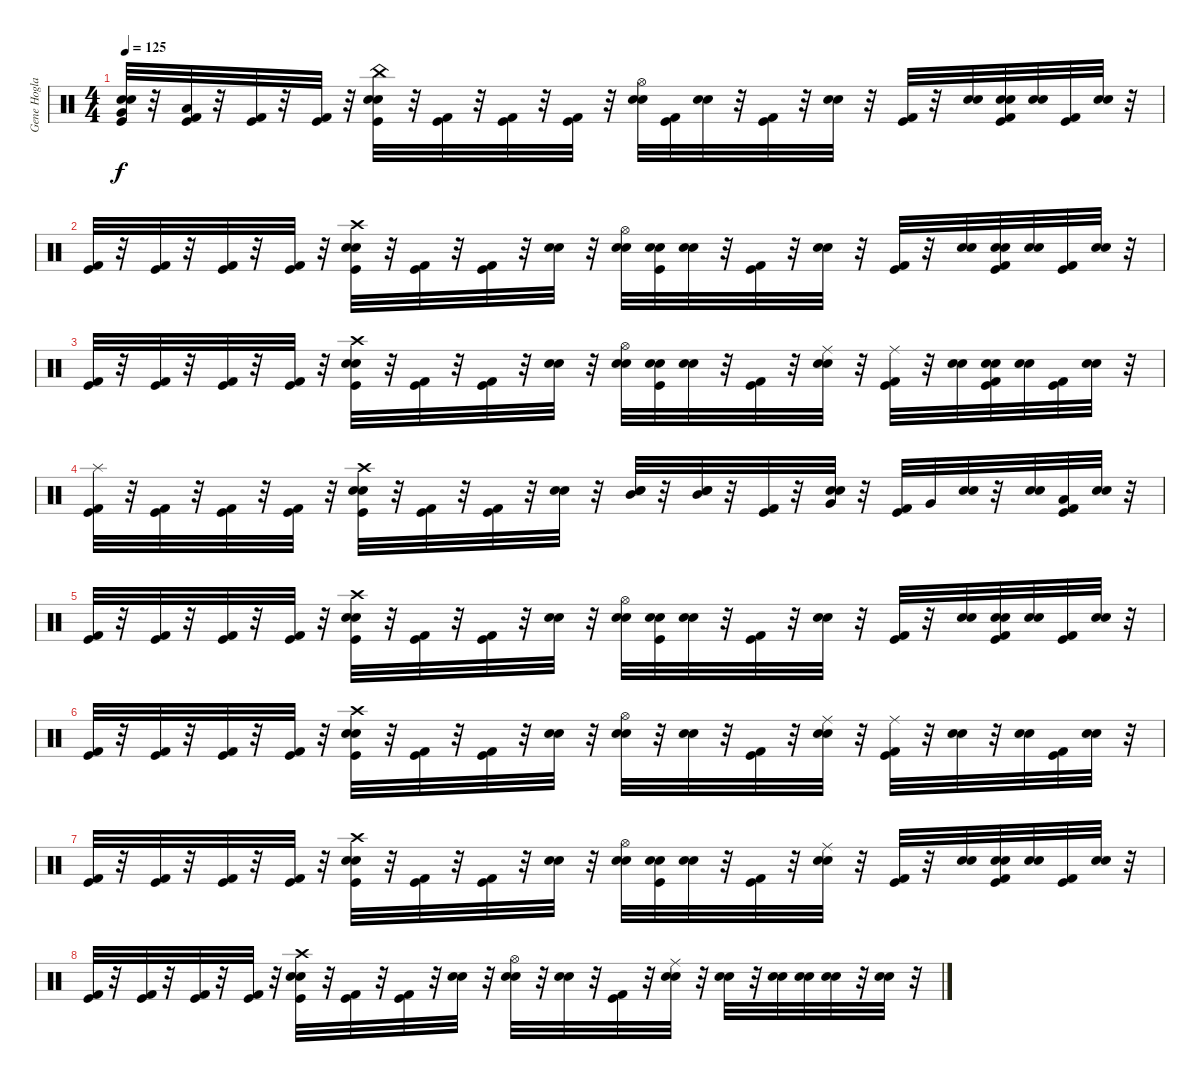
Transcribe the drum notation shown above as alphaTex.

\track ("Gene Hoglan" "Gene Hogla") {instrument percussion}
\staff {score}
\articulation defaults
\ts (4 4)
\tempo 125
\clef neutral
\ks c
("Very Low Tom (hit)" "Electric Snare (hit)" "Snare (hit) 2" "Kick (hit)").32{dy f} r.32 ("Low Floor Tom (hit)" "Kick (hit) 2" "Kick (hit)").32 r.32 ("Kick (hit) 2" "Kick (hit)").32 r.32 ("Kick (hit) 2" "Kick (hit)").32 r.32 ("China (hit)" "Electric Snare (hit)" "Snare (hit) 2" "Kick (hit)").32 r.32 ("Kick (hit) 2" "Kick (hit)").32 r.32 ("Kick (hit) 2" "Kick (hit)").32 r.32 ("Kick (hit) 2" "Kick (hit)").32 r.32 ("Hi-Hat (open)" "Electric Snare (hit)" "Snare (hit) 2").32 ("Kick (hit) 2" "Kick (hit)").32 ("Electric Snare (hit)" "Snare (hit) 2").32 r.32 ("Kick (hit) 2" "Kick (hit)").32 r.32 ("Electric Snare (hit)" "Snare (hit) 2").32 r.32 ("Kick (hit) 2" "Kick (hit)").32 r.32 ("Electric Snare (hit)" "Snare (hit) 2").32 ("Electric Snare (hit)" "Snare (hit) 2" "Kick (hit) 2" "Kick (hit)").32 ("Electric Snare (hit)" "Snare (hit) 2").32 ("Kick (hit) 2" "Kick (hit)").32 ("Electric Snare (hit)" "Snare (hit) 2").32 r.32 |
("Kick (hit) 2" "Kick (hit)").32 r.32 ("Kick (hit) 2" "Kick (hit)").32 r.32 ("Kick (hit) 2" "Kick (hit)").32 r.32 ("Kick (hit) 2" "Kick (hit)").32 r.32 ("Crash high (hit)" "Electric Snare (hit)" "Snare (hit) 2" "Kick (hit)").32 r.32 ("Kick (hit) 2" "Kick (hit)").32 r.32 ("Kick (hit) 2" "Kick (hit)").32 r.32 ("Electric Snare (hit)" "Snare (hit) 2").32 r.32 ("Hi-Hat (open)" "Electric Snare (hit)" "Snare (hit) 2").32 ("Electric Snare (hit)" "Snare (hit) 2" "Kick (hit)").32 ("Electric Snare (hit)" "Snare (hit) 2").32 r.32 ("Kick (hit) 2" "Kick (hit)").32 r.32 ("Electric Snare (hit)" "Snare (hit) 2").32 r.32 ("Kick (hit) 2" "Kick (hit)").32 r.32 ("Electric Snare (hit)" "Snare (hit) 2").32 ("Electric Snare (hit)" "Snare (hit) 2" "Kick (hit) 2" "Kick (hit)").32 ("Electric Snare (hit)" "Snare (hit) 2").32 ("Kick (hit) 2" "Kick (hit)").32 ("Electric Snare (hit)" "Snare (hit) 2").32 r.32 |
("Kick (hit) 2" "Kick (hit)").32 r.32 ("Kick (hit) 2" "Kick (hit)").32 r.32 ("Kick (hit) 2" "Kick (hit)").32 r.32 ("Kick (hit) 2" "Kick (hit)").32 r.32 ("Crash high (hit)" "Electric Snare (hit)" "Snare (hit) 2" "Kick (hit)").32 r.32 ("Kick (hit) 2" "Kick (hit)").32 r.32 ("Kick (hit) 2" "Kick (hit)").32 r.32 ("Electric Snare (hit)" "Snare (hit) 2").32 r.32 ("Hi-Hat (open)" "Electric Snare (hit)" "Snare (hit) 2").32 ("Electric Snare (hit)" "Snare (hit) 2" "Kick (hit)").32 ("Electric Snare (hit)" "Snare (hit) 2").32 r.32 ("Kick (hit) 2" "Kick (hit)").32 r.32 ("Ride (middle)" "Electric Snare (hit)" "Snare (hit) 2").32 r.32 ("Ride (middle)" "Kick (hit) 2" "Kick (hit)").32 r.32 ("Electric Snare (hit)" "Snare (hit) 2").32 ("Electric Snare (hit)" "Snare (hit) 2" "Kick (hit) 2" "Kick (hit)").32 ("Electric Snare (hit)" "Snare (hit) 2").32 ("Kick (hit) 2" "Kick (hit)").32 ("Electric Snare (hit)" "Snare (hit) 2").32 r.32 |
("Splash (hit)" "Kick (hit) 2" "Kick (hit)").32 r.32 ("Kick (hit) 2" "Kick (hit)").32 r.32 ("Kick (hit) 2" "Kick (hit)").32 r.32 ("Kick (hit) 2" "Kick (hit)").32 r.32 ("Crash high (hit)" "Electric Snare (hit)" "Snare (hit) 2" "Kick (hit)").32 r.32 ("Kick (hit) 2" "Kick (hit)").32 r.32 ("Kick (hit) 2" "Kick (hit)").32 r.32 ("Electric Snare (hit)" "Snare (hit) 2").32 r.32 ("Mid Tom (hit)" "Electric Snare (hit)" "Snare (hit) 2").32 r.32 ("Mid Tom (hit)" "Electric Snare (hit)" "Snare (hit) 2").32 r.32 ("Kick (hit) 2" "Kick (hit)").32 r.32 ("Very Low Tom (hit)" "Electric Snare (hit)" "Snare (hit) 2").32 r.32 ("Kick (hit) 2" "Kick (hit)").32 "Very Low Tom (hit)".32 ("Electric Snare (hit)" "Snare (hit) 2").32 r.32 ("Electric Snare (hit)" "Snare (hit) 2").32 ("Low Floor Tom (hit)" "Kick (hit) 2" "Kick (hit)").32 ("Electric Snare (hit)" "Snare (hit) 2").32 r.32 |
("Kick (hit) 2" "Kick (hit)").32 r.32 ("Kick (hit) 2" "Kick (hit)").32 r.32 ("Kick (hit) 2" "Kick (hit)").32 r.32 ("Kick (hit) 2" "Kick (hit)").32 r.32 ("Crash high (hit)" "Electric Snare (hit)" "Snare (hit) 2" "Kick (hit)").32 r.32 ("Kick (hit) 2" "Kick (hit)").32 r.32 ("Kick (hit) 2" "Kick (hit)").32 r.32 ("Electric Snare (hit)" "Snare (hit) 2").32 r.32 ("Hi-Hat (open)" "Electric Snare (hit)" "Snare (hit) 2").32 ("Electric Snare (hit)" "Snare (hit) 2" "Kick (hit)").32 ("Electric Snare (hit)" "Snare (hit) 2").32 r.32 ("Kick (hit) 2" "Kick (hit)").32 r.32 ("Electric Snare (hit)" "Snare (hit) 2").32 r.32 ("Kick (hit) 2" "Kick (hit)").32 r.32 ("Electric Snare (hit)" "Snare (hit) 2").32 ("Electric Snare (hit)" "Snare (hit) 2" "Kick (hit) 2" "Kick (hit)").32 ("Electric Snare (hit)" "Snare (hit) 2").32 ("Kick (hit) 2" "Kick (hit)").32 ("Electric Snare (hit)" "Snare (hit) 2").32 r.32 |
("Kick (hit) 2" "Kick (hit)").32 r.32 ("Kick (hit) 2" "Kick (hit)").32 r.32 ("Kick (hit) 2" "Kick (hit)").32 r.32 ("Kick (hit) 2" "Kick (hit)").32 r.32 ("Crash high (hit)" "Electric Snare (hit)" "Snare (hit) 2" "Kick (hit)").32 r.32 ("Kick (hit) 2" "Kick (hit)").32 r.32 ("Kick (hit) 2" "Kick (hit)").32 r.32 ("Electric Snare (hit)" "Snare (hit) 2").32 r.32 ("Hi-Hat (open)" "Electric Snare (hit)" "Snare (hit) 2").32 r.32 ("Electric Snare (hit)" "Snare (hit) 2").32 r.32 ("Kick (hit) 2" "Kick (hit)").32 r.32 ("Ride (middle)" "Electric Snare (hit)" "Snare (hit) 2").32 r.32 ("Ride (middle)" "Kick (hit) 2" "Kick (hit)").32 r.32 ("Electric Snare (hit)" "Snare (hit) 2").32 r.32 ("Electric Snare (hit)" "Snare (hit) 2").32 ("Kick (hit) 2" "Kick (hit)").32 ("Electric Snare (hit)" "Snare (hit) 2").32 r.32 |
("Kick (hit) 2" "Kick (hit)").32 r.32 ("Kick (hit) 2" "Kick (hit)").32 r.32 ("Kick (hit) 2" "Kick (hit)").32 r.32 ("Kick (hit) 2" "Kick (hit)").32 r.32 ("Crash high (hit)" "Electric Snare (hit)" "Snare (hit) 2" "Kick (hit)").32 r.32 ("Kick (hit) 2" "Kick (hit)").32 r.32 ("Kick (hit) 2" "Kick (hit)").32 r.32 ("Electric Snare (hit)" "Snare (hit) 2").32 r.32 ("Hi-Hat (open)" "Electric Snare (hit)" "Snare (hit) 2").32 ("Electric Snare (hit)" "Snare (hit) 2" "Kick (hit)").32 ("Electric Snare (hit)" "Snare (hit) 2").32 r.32 ("Kick (hit) 2" "Kick (hit)").32 r.32 ("Ride (middle)" "Electric Snare (hit)" "Snare (hit) 2").32 r.32 ("Kick (hit) 2" "Kick (hit)").32 r.32 ("Electric Snare (hit)" "Snare (hit) 2").32 ("Electric Snare (hit)" "Snare (hit) 2" "Kick (hit) 2" "Kick (hit)").32 ("Electric Snare (hit)" "Snare (hit) 2").32 ("Kick (hit) 2" "Kick (hit)").32 ("Electric Snare (hit)" "Snare (hit) 2").32 r.32 |
("Kick (hit) 2" "Kick (hit)").32 r.32 ("Kick (hit) 2" "Kick (hit)").32 r.32 ("Kick (hit) 2" "Kick (hit)").32 r.32 ("Kick (hit) 2" "Kick (hit)").32 r.32 ("Crash high (hit)" "Electric Snare (hit)" "Snare (hit) 2" "Kick (hit)").32 r.32 ("Kick (hit) 2" "Kick (hit)").32 r.32 ("Kick (hit) 2" "Kick (hit)").32 r.32 ("Electric Snare (hit)" "Snare (hit) 2").32 r.32 ("Hi-Hat (open)" "Electric Snare (hit)" "Snare (hit) 2").32 r.32 ("Electric Snare (hit)" "Snare (hit) 2").32 r.32 ("Kick (hit) 2" "Kick (hit)").32 r.32 ("Ride (middle)" "Electric Snare (hit)" "Snare (hit) 2").32 r.32 ("Electric Snare (hit)" "Snare (hit) 2").32 r.32 ("Electric Snare (hit)" "Snare (hit) 2").32 ("Electric Snare (hit)" "Snare (hit) 2").32 ("Electric Snare (hit)" "Snare (hit) 2").32 r.32 ("Electric Snare (hit)" "Snare (hit) 2").32 r.32
